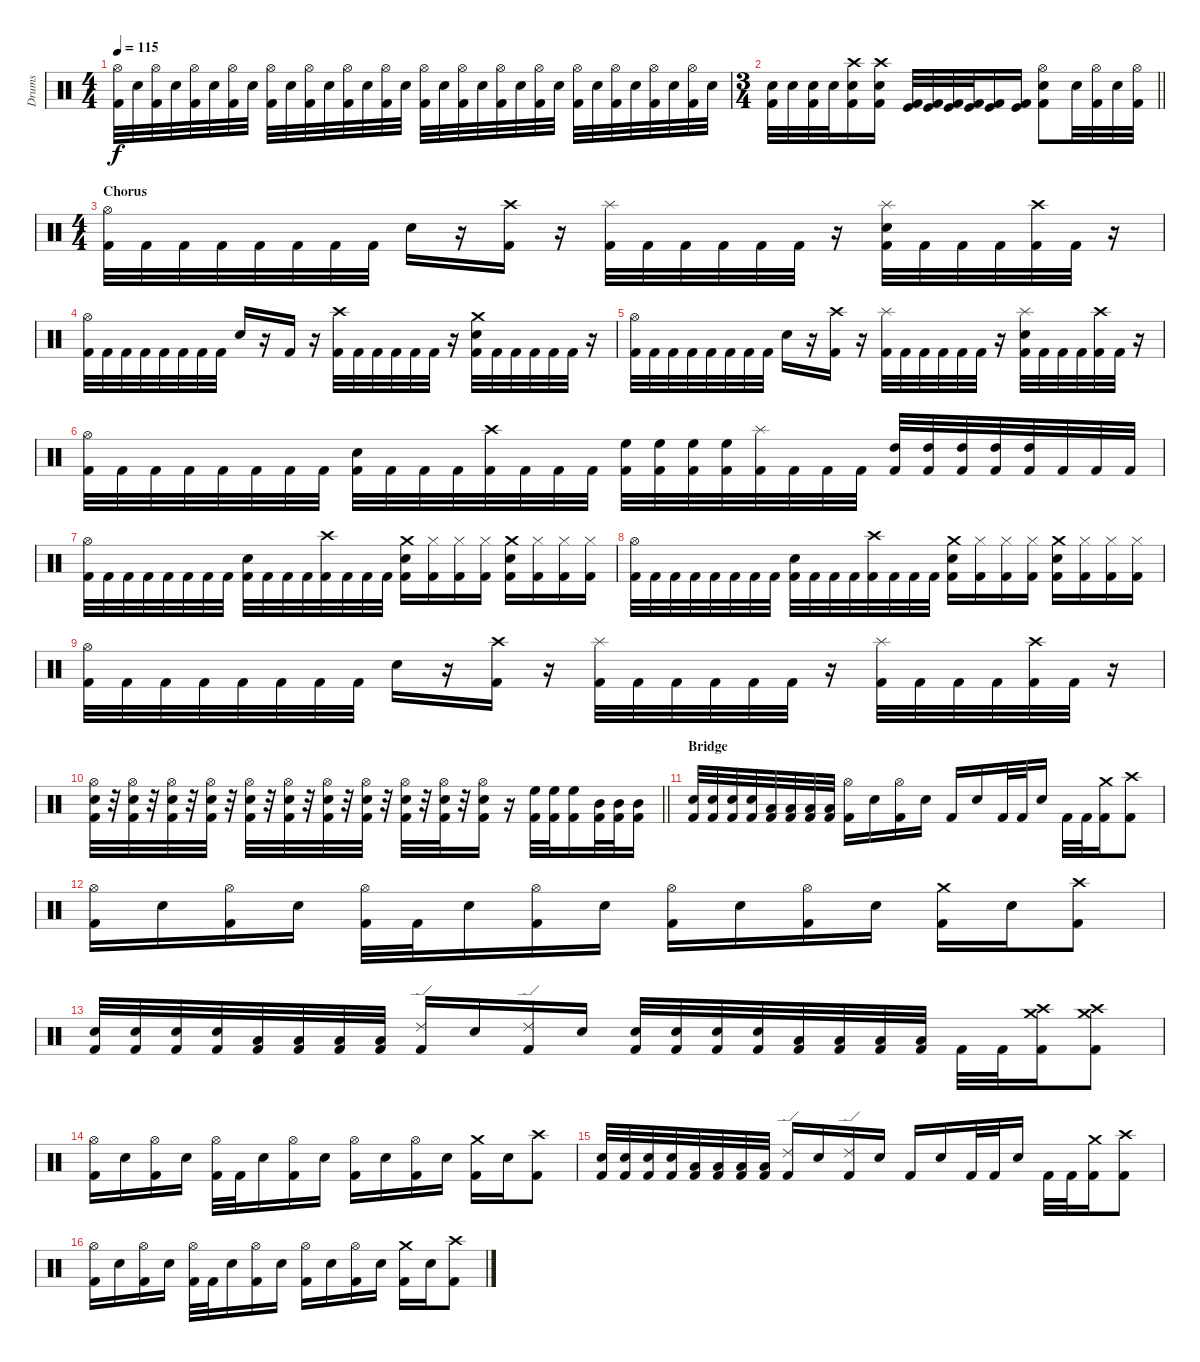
\track ("Drums" "Drums") {instrument percussion}
\staff {score}
\articulation defaults
\ts (4 4)
\tempo 115
\clef neutral
\ks c
("Hi-Hat (open)" "Kick (hit) 2").32{dy f} "Electric Snare (hit)".32 ("Hi-Hat (open)" "Kick (hit) 2").32 "Electric Snare (hit)".32 ("Hi-Hat (open)" "Kick (hit) 2").32 "Electric Snare (hit)".32 ("Hi-Hat (open)" "Kick (hit) 2").32 "Electric Snare (hit)".32 ("Hi-Hat (open)" "Kick (hit) 2").32 "Electric Snare (hit)".32 ("Hi-Hat (open)" "Kick (hit) 2").32 "Electric Snare (hit)".32 ("Hi-Hat (open)" "Kick (hit) 2").32 "Electric Snare (hit)".32 ("Hi-Hat (open)" "Kick (hit) 2").32 "Electric Snare (hit)".32 ("Hi-Hat (open)" "Kick (hit) 2").32 "Electric Snare (hit)".32 ("Hi-Hat (open)" "Kick (hit) 2").32 "Electric Snare (hit)".32 ("Hi-Hat (open)" "Kick (hit) 2").32 "Electric Snare (hit)".32 ("Hi-Hat (open)" "Kick (hit) 2").32 "Electric Snare (hit)".32 ("Hi-Hat (open)" "Kick (hit) 2").32 "Electric Snare (hit)".32 ("Hi-Hat (open)" "Kick (hit) 2").32 "Electric Snare (hit)".32 ("Hi-Hat (open)" "Kick (hit) 2").32 "Electric Snare (hit)".32 ("Hi-Hat (open)" "Kick (hit) 2").32 "Electric Snare (hit)".32 |
\ts (3 4)
\barLineRight lightlight
("Electric Snare (hit)" "Kick (hit) 2").32 "Electric Snare (hit)".32 ("Electric Snare (hit)" "Kick (hit) 2").32 "Electric Snare (hit)".32 ("Crash high (hit)" "Electric Snare (hit)" "Kick (hit) 2").16 ("Crash high (hit)" "Electric Snare (hit)" "Kick (hit) 2").16 ("Kick (hit)" "Kick (hit) 2").32 ("Kick (hit)" "Kick (hit) 2").32 ("Kick (hit)" "Kick (hit) 2").32 ("Kick (hit)" "Kick (hit) 2").32 ("Kick (hit)" "Kick (hit) 2").16 ("Kick (hit)" "Kick (hit) 2").16 ("Hi-Hat (open)" "Electric Snare (hit)" "Kick (hit) 2").8 "Electric Snare (hit)".32 ("Hi-Hat (open)" "Kick (hit) 2").32 "Electric Snare (hit)".32 ("Hi-Hat (open)" "Kick (hit) 2").32 |
\ts (4 4)
\section ("" "Chorus")
("Hi-Hat (open)" "Kick (hit) 2").32 "Kick (hit) 2".32 "Kick (hit) 2".32 "Kick (hit) 2".32 "Kick (hit) 2".32 "Kick (hit) 2".32 "Kick (hit) 2".32 "Kick (hit) 2".32 "Electric Snare (hit)".16 r.16 ("Crash high (hit)" "Kick (hit) 2").16 r.16 ("Splash (hit)" "Kick (hit) 2").32 "Kick (hit) 2".32 "Kick (hit) 2".32 "Kick (hit) 2".32 "Kick (hit) 2".32 "Kick (hit) 2".32 r.16 ("Splash (hit)" "Electric Snare (hit)" "Kick (hit) 2").32 "Kick (hit) 2".32 "Kick (hit) 2".32 "Kick (hit) 2".32 ("Crash high (hit)" "Kick (hit) 2").32 "Kick (hit) 2".32 r.16 |
("Hi-Hat (open)" "Kick (hit) 2").32 "Kick (hit) 2".32 "Kick (hit) 2".32 "Kick (hit) 2".32 "Kick (hit) 2".32 "Kick (hit) 2".32 "Kick (hit) 2".32 "Kick (hit) 2".32 "Electric Snare (hit)".16 r.16 "Kick (hit) 2".16 r.16 ("Crash high (hit)" "Kick (hit) 2").32 "Kick (hit) 2".32 "Kick (hit) 2".32 "Kick (hit) 2".32 "Kick (hit) 2".32 "Kick (hit) 2".32 r.16 ("Crash medium (hit)" "Electric Snare (hit)" "Kick (hit) 2").32 "Kick (hit) 2".32 "Kick (hit) 2".32 "Kick (hit) 2".32 "Kick (hit) 2".32 "Kick (hit) 2".32 r.16 |
("Hi-Hat (open)" "Kick (hit) 2").32 "Kick (hit) 2".32 "Kick (hit) 2".32 "Kick (hit) 2".32 "Kick (hit) 2".32 "Kick (hit) 2".32 "Kick (hit) 2".32 "Kick (hit) 2".32 "Electric Snare (hit)".16 r.16 ("Crash high (hit)" "Kick (hit) 2").16 r.16 ("Splash (hit)" "Kick (hit) 2").32 "Kick (hit) 2".32 "Kick (hit) 2".32 "Kick (hit) 2".32 "Kick (hit) 2".32 "Kick (hit) 2".32 r.16 ("Splash (hit)" "Electric Snare (hit)" "Kick (hit) 2").32 "Kick (hit) 2".32 "Kick (hit) 2".32 "Kick (hit) 2".32 ("Crash high (hit)" "Kick (hit) 2").32 "Kick (hit) 2".32 r.16 |
("Hi-Hat (open)" "Kick (hit) 2").32 "Kick (hit) 2".32 "Kick (hit) 2".32 "Kick (hit) 2".32 "Kick (hit) 2".32 "Kick (hit) 2".32 "Kick (hit) 2".32 "Kick (hit) 2".32 ("Electric Snare (hit)" "Kick (hit) 2").32 "Kick (hit) 2".32 "Kick (hit) 2".32 "Kick (hit) 2".32 ("Crash high (hit)" "Kick (hit) 2").32 "Kick (hit) 2".32 "Kick (hit) 2".32 "Kick (hit) 2".32 ("High Floor Tom (hit)" "Kick (hit) 2").32 ("High Floor Tom (hit)" "Kick (hit) 2").32 ("High Floor Tom (hit)" "Kick (hit) 2").32 ("High Floor Tom (hit)" "Kick (hit) 2").32 ("Splash (hit)" "Kick (hit) 2").32 "Kick (hit) 2".32 "Kick (hit) 2".32 "Kick (hit) 2".32 ("High Tom (hit)" "Kick (hit) 2").32 ("High Tom (hit)" "Kick (hit) 2").32 ("High Tom (hit)" "Kick (hit) 2").32 ("High Tom (hit)" "Kick (hit) 2").32 ("High Tom (hit)" "Kick (hit) 2").32 "Kick (hit) 2".32 "Kick (hit) 2".32 "Kick (hit) 2".32 |
("Hi-Hat (open)" "Kick (hit) 2").32 "Kick (hit) 2".32 "Kick (hit) 2".32 "Kick (hit) 2".32 "Kick (hit) 2".32 "Kick (hit) 2".32 "Kick (hit) 2".32 "Kick (hit) 2".32 ("Electric Snare (hit)" "Kick (hit) 2").32 "Kick (hit) 2".32 "Kick (hit) 2".32 "Kick (hit) 2".32 ("Crash high (hit)" "Kick (hit) 2").32 "Kick (hit) 2".32 "Kick (hit) 2".32 "Kick (hit) 2".32 ("Crash medium (hit)" "Electric Snare (hit)" "Kick (hit) 2").16 ("Hi-Hat (closed)" "Kick (hit) 2").16 ("Hi-Hat (closed)" "Kick (hit) 2").16 ("Hi-Hat (closed)" "Kick (hit) 2").16 ("Crash medium (hit)" "Electric Snare (hit)" "Kick (hit) 2").16 ("Hi-Hat (closed)" "Kick (hit) 2").16 ("Hi-Hat (closed)" "Kick (hit) 2").16 ("Hi-Hat (closed)" "Kick (hit) 2").16 |
("Hi-Hat (open)" "Kick (hit) 2").32 "Kick (hit) 2".32 "Kick (hit) 2".32 "Kick (hit) 2".32 "Kick (hit) 2".32 "Kick (hit) 2".32 "Kick (hit) 2".32 "Kick (hit) 2".32 ("Electric Snare (hit)" "Kick (hit) 2").32 "Kick (hit) 2".32 "Kick (hit) 2".32 "Kick (hit) 2".32 ("Crash high (hit)" "Kick (hit) 2").32 "Kick (hit) 2".32 "Kick (hit) 2".32 "Kick (hit) 2".32 ("Crash medium (hit)" "Electric Snare (hit)" "Kick (hit) 2").16 ("Hi-Hat (closed)" "Kick (hit) 2").16 ("Hi-Hat (closed)" "Kick (hit) 2").16 ("Hi-Hat (closed)" "Kick (hit) 2").16 ("Crash medium (hit)" "Electric Snare (hit)" "Kick (hit) 2").16 ("Hi-Hat (closed)" "Kick (hit) 2").16 ("Hi-Hat (closed)" "Kick (hit) 2").16 ("Hi-Hat (closed)" "Kick (hit) 2").16 |
("Hi-Hat (open)" "Kick (hit) 2").32 "Kick (hit) 2".32 "Kick (hit) 2".32 "Kick (hit) 2".32 "Kick (hit) 2".32 "Kick (hit) 2".32 "Kick (hit) 2".32 "Kick (hit) 2".32 "Electric Snare (hit)".16 r.16 ("Crash high (hit)" "Kick (hit) 2").16 r.16 ("Splash (hit)" "Kick (hit) 2").32 "Kick (hit) 2".32 "Kick (hit) 2".32 "Kick (hit) 2".32 "Kick (hit) 2".32 "Kick (hit) 2".32 r.16 ("Splash (hit)" "Kick (hit) 2").32 "Kick (hit) 2".32 "Kick (hit) 2".32 "Kick (hit) 2".32 ("Crash high (hit)" "Kick (hit) 2").32 "Kick (hit) 2".32 r.16 |
\barLineRight lightlight
("Hi-Hat (open)" "Electric Snare (hit)" "Kick (hit) 2").32 r.32 ("Hi-Hat (open)" "Electric Snare (hit)" "Kick (hit) 2").32 r.32 ("Hi-Hat (open)" "Electric Snare (hit)" "Kick (hit) 2").32 r.32 ("Hi-Hat (open)" "Electric Snare (hit)" "Kick (hit) 2").32 r.32 ("Hi-Hat (open)" "Electric Snare (hit)" "Kick (hit) 2").32 r.32 ("Hi-Hat (open)" "Electric Snare (hit)" "Kick (hit) 2").32 r.32 ("Hi-Hat (open)" "Electric Snare (hit)" "Kick (hit) 2").32 r.32 ("Hi-Hat (open)" "Electric Snare (hit)" "Kick (hit) 2").32 r.32 ("Hi-Hat (open)" "Electric Snare (hit)" "Kick (hit) 2").32 r.32 ("Hi-Hat (open)" "Electric Snare (hit)" "Kick (hit) 2").32 r.32 ("Hi-Hat (open)" "Electric Snare (hit)" "Kick (hit) 2").16 r.16 ("High Floor Tom (hit)" "Kick (hit) 2").32 ("High Floor Tom (hit)" "Kick (hit) 2").32 ("High Floor Tom (hit)" "Kick (hit) 2").16 ("Mid Tom (hit)" "Kick (hit) 2").32 ("Mid Tom (hit)" "Kick (hit) 2").32 ("Mid Tom (hit)" "Kick (hit) 2").16 |
\section ("" "Bridge")
("Electric Snare (hit)" "Kick (hit) 2").32 ("Electric Snare (hit)" "Kick (hit) 2").32 ("Electric Snare (hit)" "Kick (hit) 2").32 ("Electric Snare (hit)" "Kick (hit) 2").32 ("Low Tom (hit)" "Kick (hit) 2").32 ("Low Tom (hit)" "Kick (hit) 2").32 ("Low Tom (hit)" "Kick (hit) 2").32 ("Low Tom (hit)" "Kick (hit) 2").32 ("Hi-Hat (open)" "Kick (hit) 2").16 "Electric Snare (hit)".16 ("Hi-Hat (open)" "Kick (hit) 2").16 "Electric Snare (hit)".16 "Kick (hit) 2".16 "Electric Snare (hit)".16 "Kick (hit) 2".32 "Kick (hit) 2".32 "Electric Snare (hit)".16 "Kick (hit) 2".32 "Kick (hit) 2".32 ("Crash medium (hit)" "Kick (hit) 2").16 ("Crash high (hit)" "Kick (hit) 2").8 |
("Hi-Hat (open)" "Kick (hit) 2").16 "Electric Snare (hit)".16 ("Hi-Hat (open)" "Kick (hit) 2").16 "Electric Snare (hit)".16 ("Hi-Hat (open)" "Kick (hit) 2").32 "Kick (hit) 2".32 "Electric Snare (hit)".16 ("Hi-Hat (open)" "Kick (hit) 2").16 "Electric Snare (hit)".16 ("Hi-Hat (open)" "Kick (hit) 2").16 "Electric Snare (hit)".16 ("Hi-Hat (open)" "Kick (hit) 2").16 "Electric Snare (hit)".16 ("Crash medium (hit)" "Kick (hit) 2").16 "Electric Snare (hit)".16 ("Crash high (hit)" "Kick (hit) 2").8 |
("Electric Snare (hit)" "Kick (hit) 2").32 ("Electric Snare (hit)" "Kick (hit) 2").32 ("Electric Snare (hit)" "Kick (hit) 2").32 ("Electric Snare (hit)" "Kick (hit) 2").32 ("Low Tom (hit)" "Kick (hit) 2").32 ("Low Tom (hit)" "Kick (hit) 2").32 ("Low Tom (hit)" "Kick (hit) 2").32 ("Low Tom (hit)" "Kick (hit) 2").32 ("Ride (edge) 2" "Kick (hit) 2").16 "Electric Snare (hit)".16 ("Ride (edge) 2" "Kick (hit) 2").16 "Electric Snare (hit)".16 ("Electric Snare (hit)" "Kick (hit) 2").32 ("Electric Snare (hit)" "Kick (hit) 2").32 ("Electric Snare (hit)" "Kick (hit) 2").32 ("Electric Snare (hit)" "Kick (hit) 2").32 ("Low Tom (hit)" "Kick (hit) 2").32 ("Low Tom (hit)" "Kick (hit) 2").32 ("Low Tom (hit)" "Kick (hit) 2").32 ("Low Tom (hit)" "Kick (hit) 2").32 "Kick (hit) 2".32 "Kick (hit) 2".32 ("Crash high (hit)" "Crash medium (hit)" "Kick (hit) 2").16 ("Crash medium (hit)" "Crash high (hit)" "Kick (hit) 2").8 |
("Hi-Hat (open)" "Kick (hit) 2").16 "Electric Snare (hit)".16 ("Hi-Hat (open)" "Kick (hit) 2").16 "Electric Snare (hit)".16 ("Hi-Hat (open)" "Kick (hit) 2").32 "Kick (hit) 2".32 "Electric Snare (hit)".16 ("Hi-Hat (open)" "Kick (hit) 2").16 "Electric Snare (hit)".16 ("Hi-Hat (open)" "Kick (hit) 2").16 "Electric Snare (hit)".16 ("Hi-Hat (open)" "Kick (hit) 2").16 "Electric Snare (hit)".16 ("Crash medium (hit)" "Kick (hit) 2").16 "Electric Snare (hit)".16 ("Crash high (hit)" "Kick (hit) 2").8 |
("Electric Snare (hit)" "Kick (hit) 2").32 ("Electric Snare (hit)" "Kick (hit) 2").32 ("Electric Snare (hit)" "Kick (hit) 2").32 ("Electric Snare (hit)" "Kick (hit) 2").32 ("Low Tom (hit)" "Kick (hit) 2").32 ("Low Tom (hit)" "Kick (hit) 2").32 ("Low Tom (hit)" "Kick (hit) 2").32 ("Low Tom (hit)" "Kick (hit) 2").32 ("Ride (edge) 2" "Kick (hit) 2").16 "Electric Snare (hit)".16 ("Ride (edge) 2" "Kick (hit) 2").16 "Electric Snare (hit)".16 "Kick (hit) 2".16 "Electric Snare (hit)".16 "Kick (hit) 2".32 "Kick (hit) 2".32 "Electric Snare (hit)".16 "Kick (hit) 2".32 "Kick (hit) 2".32 ("Crash medium (hit)" "Kick (hit) 2").16 ("Crash high (hit)" "Kick (hit) 2").8 |
("Hi-Hat (open)" "Kick (hit) 2").16 "Electric Snare (hit)".16 ("Hi-Hat (open)" "Kick (hit) 2").16 "Electric Snare (hit)".16 ("Hi-Hat (open)" "Kick (hit) 2").32 "Kick (hit) 2".32 "Electric Snare (hit)".16 ("Hi-Hat (open)" "Kick (hit) 2").16 "Electric Snare (hit)".16 ("Hi-Hat (open)" "Kick (hit) 2").16 "Electric Snare (hit)".16 ("Hi-Hat (open)" "Kick (hit) 2").16 "Electric Snare (hit)".16 ("Crash medium (hit)" "Kick (hit) 2").16 "Electric Snare (hit)".16 ("Crash high (hit)" "Kick (hit) 2").8
